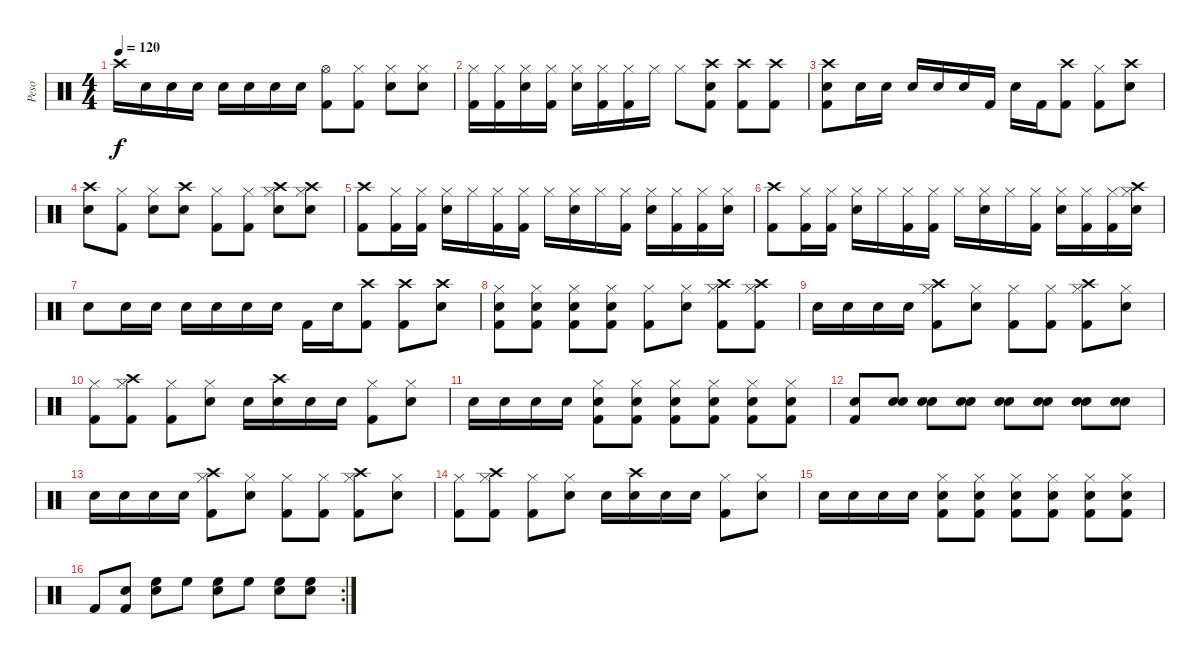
\track ("Peso" "Peso") {instrument percussion}
\staff {score}
\articulation defaults
\ts (4 4)
\tempo 120
\clef neutral
\ks c "Crash high (hit)".16{dy f} "Snare (hit) 2".16 "Snare (hit) 2".16 "Snare (hit) 2".16 "Snare (hit) 2".16 "Snare (hit) 2".16 "Snare (hit) 2".16 "Snare (hit) 2".16
("Hi-Hat (open)" "Kick (hit) 2").8 ("Hi-Hat (closed)" "Kick (hit) 2").8 ("Hi-Hat (closed)" "Snare (hit) 2").8 ("Hi-Hat (closed)" "Snare (hit) 2").8 |
("Hi-Hat (closed)" "Kick (hit) 2").16 ("Hi-Hat (closed)" "Kick (hit) 2").16 ("Hi-Hat (closed)" "Snare (hit) 2").16 ("Hi-Hat (closed)" "Kick (hit) 2").16 ("Hi-Hat (closed)" "Snare (hit) 2").16 ("Hi-Hat (closed)" "Kick (hit) 2").16 ("Hi-Hat (closed)" "Kick (hit) 2").16 "Hi-Hat (closed)".16 "Hi-Hat (closed)".8 ("Crash high (hit)" "Snare (hit) 2" "Kick (hit) 2").8 ("Crash high (hit)" "Kick (hit) 2").8 ("Crash high (hit)" "Kick (hit) 2").8 |
("Crash high (hit)" "Snare (hit) 2" "Kick (hit) 2").8 "Snare (hit) 2".16 "Snare (hit) 2".16 "Snare (hit) 2".16 "Snare (hit) 2".16 "Snare (hit) 2".16 "Kick (hit) 2".16 "Snare (hit) 2".16 "Kick (hit) 2".16 ("Crash high (hit)" "Kick (hit) 2").8 ("Hi-Hat (closed)" "Kick (hit) 2").8 ("Crash high (hit)" "Snare (hit) 2").8 |
("Crash high (hit)" "Snare (hit) 2").8 ("Hi-Hat (closed)" "Kick (hit) 2").8 ("Hi-Hat (closed)" "Snare (hit) 2").8 ("Crash high (hit)" "Snare (hit) 2").8 ("Hi-Hat (closed)" "Kick (hit) 2").8 ("Hi-Hat (closed)" "Kick (hit) 2").8 ("Crash high (hit)" "Hi-Hat (closed)" "Snare (hit) 2").8 ("Crash high (hit)" "Hi-Hat (closed)" "Snare (hit) 2").8 |
("Crash high (hit)" "Kick (hit) 2").8 ("Hi-Hat (closed)" "Kick (hit) 2").16 ("Hi-Hat (closed)" "Kick (hit) 2").16 ("Hi-Hat (closed)" "Snare (hit) 2").16 "Hi-Hat (closed)".16 ("Hi-Hat (closed)" "Kick (hit) 2").16 ("Hi-Hat (closed)" "Kick (hit) 2").16 "Hi-Hat (closed)".16 ("Hi-Hat (closed)" "Snare (hit) 2").16 "Hi-Hat (closed)".16 ("Hi-Hat (closed)" "Kick (hit) 2").16 ("Hi-Hat (closed)" "Snare (hit) 2").16 ("Hi-Hat (closed)" "Kick (hit) 2").16 ("Hi-Hat (closed)" "Kick (hit) 2").16 ("Hi-Hat (closed)" "Snare (hit) 2").16 |
("Crash high (hit)" "Kick (hit) 2").8 ("Hi-Hat (closed)" "Kick (hit) 2").16 ("Hi-Hat (closed)" "Kick (hit) 2").16 ("Hi-Hat (closed)" "Snare (hit) 2").16 "Hi-Hat (closed)".16 ("Hi-Hat (closed)" "Kick (hit) 2").16 ("Hi-Hat (closed)" "Kick (hit) 2").16 "Hi-Hat (closed)".16 ("Hi-Hat (closed)" "Snare (hit) 2").16 "Hi-Hat (closed)".16 ("Hi-Hat (closed)" "Kick (hit) 2").16 ("Hi-Hat (closed)" "Snare (hit) 2").16 ("Hi-Hat (closed)" "Kick (hit) 2").16 ("Hi-Hat (closed)" "Kick (hit) 2").16 ("Crash high (hit)" "Hi-Hat (closed)" "Snare (hit) 2").16 |
"Snare (hit) 2".8 "Snare (hit) 2".16 "Snare (hit) 2".16 "Snare (hit) 2".16 "Snare (hit) 2".16 "Snare (hit) 2".16 "Snare (hit) 2".16 "Kick (hit) 2".16 "Snare (hit) 2".16 ("Crash high (hit)" "Kick (hit) 2").8 ("Crash high (hit)" "Kick (hit) 2").8 ("Crash high (hit)" "Snare (hit) 2").8 |
("Hi-Hat (closed)" "Snare (hit) 2" "Kick (hit) 2").8 ("Hi-Hat (closed)" "Snare (hit) 2" "Kick (hit) 2").8 ("Hi-Hat (closed)" "Snare (hit) 2" "Kick (hit) 2").8 ("Hi-Hat (closed)" "Snare (hit) 2" "Kick (hit) 2").8 ("Hi-Hat (closed)" "Kick (hit) 2").8 ("Hi-Hat (closed)" "Snare (hit) 2").8 ("Crash high (hit)" "Hi-Hat (closed)" "Kick (hit) 2").8 ("Crash high (hit)" "Hi-Hat (closed)" "Kick (hit) 2").8 |
"Snare (hit) 2".16 "Snare (hit) 2".16 "Snare (hit) 2".16 "Snare (hit) 2".16 ("Crash high (hit)" "Hi-Hat (closed)" "Kick (hit) 2").8 ("Hi-Hat (closed)" "Snare (hit) 2").8 ("Hi-Hat (closed)" "Kick (hit) 2").8 ("Hi-Hat (closed)" "Kick (hit) 2").8 ("Crash high (hit)" "Hi-Hat (closed)" "Kick (hit) 2").8 ("Hi-Hat (closed)" "Snare (hit) 2").8 |
("Hi-Hat (closed)" "Kick (hit) 2").8 ("Crash high (hit)" "Hi-Hat (closed)" "Kick (hit) 2").8 ("Hi-Hat (closed)" "Kick (hit) 2").8 ("Hi-Hat (closed)" "Snare (hit) 2").8 "Snare (hit) 2".16 ("Crash high (hit)" "Snare (hit) 2").16 "Snare (hit) 2".16 "Snare (hit) 2".16 ("Hi-Hat (closed)" "Kick (hit) 2").8 ("Hi-Hat (closed)" "Snare (hit) 2").8 |
"Snare (hit) 2".16 "Snare (hit) 2".16 "Snare (hit) 2".16 "Snare (hit) 2".16 ("Hi-Hat (closed)" "Snare (hit) 2" "Kick (hit) 2").8 ("Hi-Hat (closed)" "Snare (hit) 2" "Kick (hit) 2").8 ("Hi-Hat (closed)" "Snare (hit) 2" "Kick (hit) 2").8 ("Hi-Hat (closed)" "Snare (hit) 2" "Kick (hit) 2").8 ("Hi-Hat (closed)" "Snare (hit) 2" "Kick (hit) 2").8 ("Hi-Hat (closed)" "Snare (hit) 2" "Kick (hit) 2").8 |
("Snare (hit) 2" "Kick (hit) 2").8 ("Snare (hit) 2" "Snare (hit) 2").8 ("Snare (hit) 2" "Snare (hit) 2").8 ("Snare (hit) 2" "Snare (hit) 2").8 ("Snare (hit) 2" "Snare (hit) 2").8 ("Snare (hit) 2" "Snare (hit) 2").8 ("Snare (hit) 2" "Snare (hit) 2").8 ("Snare (hit) 2" "Snare (hit) 2").8 |
"Snare (hit) 2".16 "Snare (hit) 2".16 "Snare (hit) 2".16 "Snare (hit) 2".16 ("Crash high (hit)" "Hi-Hat (closed)" "Kick (hit) 2").8 ("Hi-Hat (closed)" "Snare (hit) 2").8 ("Hi-Hat (closed)" "Kick (hit) 2").8 ("Hi-Hat (closed)" "Kick (hit) 2").8 ("Crash high (hit)" "Hi-Hat (closed)" "Kick (hit) 2").8 ("Hi-Hat (closed)" "Snare (hit) 2").8 |
("Hi-Hat (closed)" "Kick (hit) 2").8 ("Crash high (hit)" "Hi-Hat (closed)" "Kick (hit) 2").8 ("Hi-Hat (closed)" "Kick (hit) 2").8 ("Hi-Hat (closed)" "Snare (hit) 2").8 "Snare (hit) 2".16 ("Crash high (hit)" "Snare (hit) 2").16 "Snare (hit) 2".16 "Snare (hit) 2".16 ("Hi-Hat (closed)" "Kick (hit) 2").8 ("Hi-Hat (closed)" "Snare (hit) 2").8 |
"Snare (hit) 2".16 "Snare (hit) 2".16 "Snare (hit) 2".16 "Snare (hit) 2".16 ("Hi-Hat (closed)" "Snare (hit) 2" "Kick (hit) 2").8 ("Hi-Hat (closed)" "Snare (hit) 2" "Kick (hit) 2").8 ("Hi-Hat (closed)" "Snare (hit) 2" "Kick (hit) 2").8 ("Hi-Hat (closed)" "Snare (hit) 2" "Kick (hit) 2").8 ("Hi-Hat (closed)" "Snare (hit) 2" "Kick (hit) 2").8 ("Hi-Hat (closed)" "Snare (hit) 2" "Kick (hit) 2").8 |
\rc 2 "Kick (hit) 2".8
("Snare (hit) 2" "Kick (hit) 2").8 ("Snare (hit) 2" "High Floor Tom (hit)").8 "High Floor Tom (hit)".8 ("Snare (hit) 2" "High Floor Tom (hit)").8 "High Floor Tom (hit)".8 ("Snare (hit) 2" "High Floor Tom (hit)").8 ("Snare (hit) 2" "High Floor Tom (hit)").8
